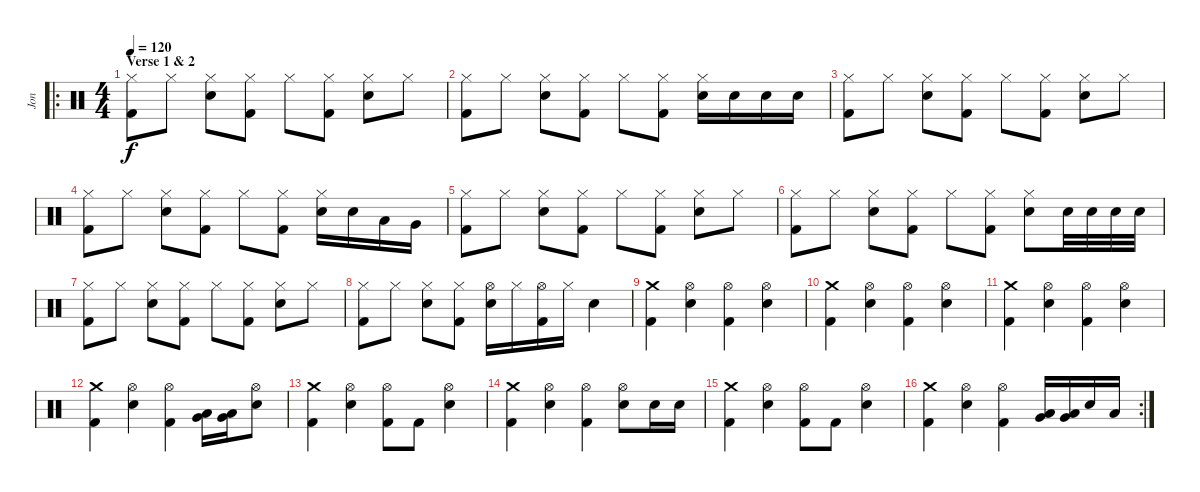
\track ("Jon" "Jon") {instrument percussion}
\staff {score}
\articulation defaults
\ro
\ts (4 4)
\section ("" "Verse 1 & 2")
\tempo 120
\clef neutral
\ks c
("Hi-Hat (closed)" "Kick (hit) 2").8{dy f} "Hi-Hat (closed)".8 ("Hi-Hat (closed)" "Snare (hit) 2").8 ("Hi-Hat (closed)" "Kick (hit) 2").8 "Hi-Hat (closed)".8 ("Hi-Hat (closed)" "Kick (hit) 2").8 ("Hi-Hat (closed)" "Snare (hit) 2").8 "Hi-Hat (closed)".8 |
("Hi-Hat (closed)" "Kick (hit) 2").8 "Hi-Hat (closed)".8 ("Hi-Hat (closed)" "Snare (hit) 2").8 ("Hi-Hat (closed)" "Kick (hit) 2").8 "Hi-Hat (closed)".8 ("Hi-Hat (closed)" "Kick (hit) 2").8 ("Hi-Hat (closed)" "Snare (hit) 2").16 "Snare (hit) 2".16 "Snare (hit) 2".16 "Snare (hit) 2".16 |
("Hi-Hat (closed)" "Kick (hit) 2").8 "Hi-Hat (closed)".8 ("Hi-Hat (closed)" "Snare (hit) 2").8 ("Hi-Hat (closed)" "Kick (hit) 2").8 "Hi-Hat (closed)".8 ("Hi-Hat (closed)" "Kick (hit) 2").8 ("Hi-Hat (closed)" "Snare (hit) 2").8 "Hi-Hat (closed)".8 |
("Hi-Hat (closed)" "Kick (hit) 2").8 "Hi-Hat (closed)".8 ("Hi-Hat (closed)" "Snare (hit) 2").8 ("Hi-Hat (closed)" "Kick (hit) 2").8 "Hi-Hat (closed)".8 ("Hi-Hat (closed)" "Kick (hit) 2").8 ("Hi-Hat (closed)" "Snare (hit) 2").16 "Snare (hit) 2".16 "Low Tom (hit)".16 "Very Low Tom (hit)".16 |
("Hi-Hat (closed)" "Kick (hit) 2").8 "Hi-Hat (closed)".8 ("Hi-Hat (closed)" "Snare (hit) 2").8 ("Hi-Hat (closed)" "Kick (hit) 2").8 "Hi-Hat (closed)".8 ("Hi-Hat (closed)" "Kick (hit) 2").8 ("Hi-Hat (closed)" "Snare (hit) 2").8 "Hi-Hat (closed)".8 |
("Hi-Hat (closed)" "Kick (hit) 2").8 "Hi-Hat (closed)".8 ("Hi-Hat (closed)" "Snare (hit) 2").8 ("Hi-Hat (closed)" "Kick (hit) 2").8 "Hi-Hat (closed)".8 ("Hi-Hat (closed)" "Kick (hit) 2").8 ("Hi-Hat (closed)" "Snare (hit) 2").8 "Snare (hit) 2".32 "Snare (hit) 2".32 "Snare (hit) 2".32 "Snare (hit) 2".32 |
("Hi-Hat (closed)" "Kick (hit) 2").8 "Hi-Hat (closed)".8 ("Hi-Hat (closed)" "Snare (hit) 2").8 ("Hi-Hat (closed)" "Kick (hit) 2").8 "Hi-Hat (closed)".8 ("Hi-Hat (closed)" "Kick (hit) 2").8 ("Hi-Hat (closed)" "Snare (hit) 2").8 "Hi-Hat (closed)".8 |
("Hi-Hat (closed)" "Kick (hit) 2").8 "Hi-Hat (closed)".8 ("Hi-Hat (closed)" "Snare (hit) 2").8 ("Hi-Hat (closed)" "Kick (hit) 2").8 ("Hi-Hat (open)" "Snare (hit) 2").16 "Hi-Hat (closed)".16 ("Hi-Hat (open)" "Kick (hit) 2").16 "Hi-Hat (closed)".16 "Snare (hit) 2".4 |
("Crash medium (hit)" "Kick (hit) 2").4 ("Hi-Hat (open)" "Snare (hit) 2").4 ("Hi-Hat (open)" "Kick (hit) 2").4 ("Hi-Hat (open)" "Snare (hit) 2").4 |
("Crash medium (hit)" "Kick (hit) 2").4 ("Hi-Hat (open)" "Snare (hit) 2").4 ("Hi-Hat (open)" "Kick (hit) 2").4 ("Hi-Hat (open)" "Snare (hit) 2").4 |
("Crash medium (hit)" "Kick (hit) 2").4 ("Hi-Hat (open)" "Snare (hit) 2").4 ("Hi-Hat (open)" "Kick (hit) 2").4 ("Hi-Hat (open)" "Snare (hit) 2").4 |
("Crash medium (hit)" "Kick (hit) 2").4 ("Hi-Hat (open)" "Snare (hit) 2").4 ("Hi-Hat (open)" "Kick (hit) 2").4 ("Low Tom (hit)" "Very Low Tom (hit)").16 ("Very Low Tom (hit)" "Low Floor Tom (hit)").16 ("Hi-Hat (open)" "Snare (hit) 2").8 |
("Crash medium (hit)" "Kick (hit) 2").4 ("Hi-Hat (open)" "Snare (hit) 2").4 ("Hi-Hat (open)" "Kick (hit) 2").8 "Kick (hit) 2".8 ("Hi-Hat (open)" "Snare (hit) 2").4 |
("Crash medium (hit)" "Kick (hit) 2").4 ("Hi-Hat (open)" "Snare (hit) 2").4 ("Hi-Hat (open)" "Kick (hit) 2").4 ("Hi-Hat (open)" "Snare (hit) 2").8 "Snare (hit) 2".16 "Snare (hit) 2".16 |
("Crash medium (hit)" "Kick (hit) 2").4 ("Hi-Hat (open)" "Snare (hit) 2").4 ("Hi-Hat (open)" "Kick (hit) 2").8 "Kick (hit) 2".8 ("Hi-Hat (open)" "Snare (hit) 2").4 |
\rc 2
("Crash medium (hit)" "Kick (hit) 2").4 ("Hi-Hat (open)" "Snare (hit) 2").4 ("Hi-Hat (open)" "Kick (hit) 2").4 ("Low Tom (hit)" "Very Low Tom (hit)").16 ("Very Low Tom (hit)" "Low Floor Tom (hit)").16 "Snare (hit) 2".16 "Low Floor Tom (hit)".16
